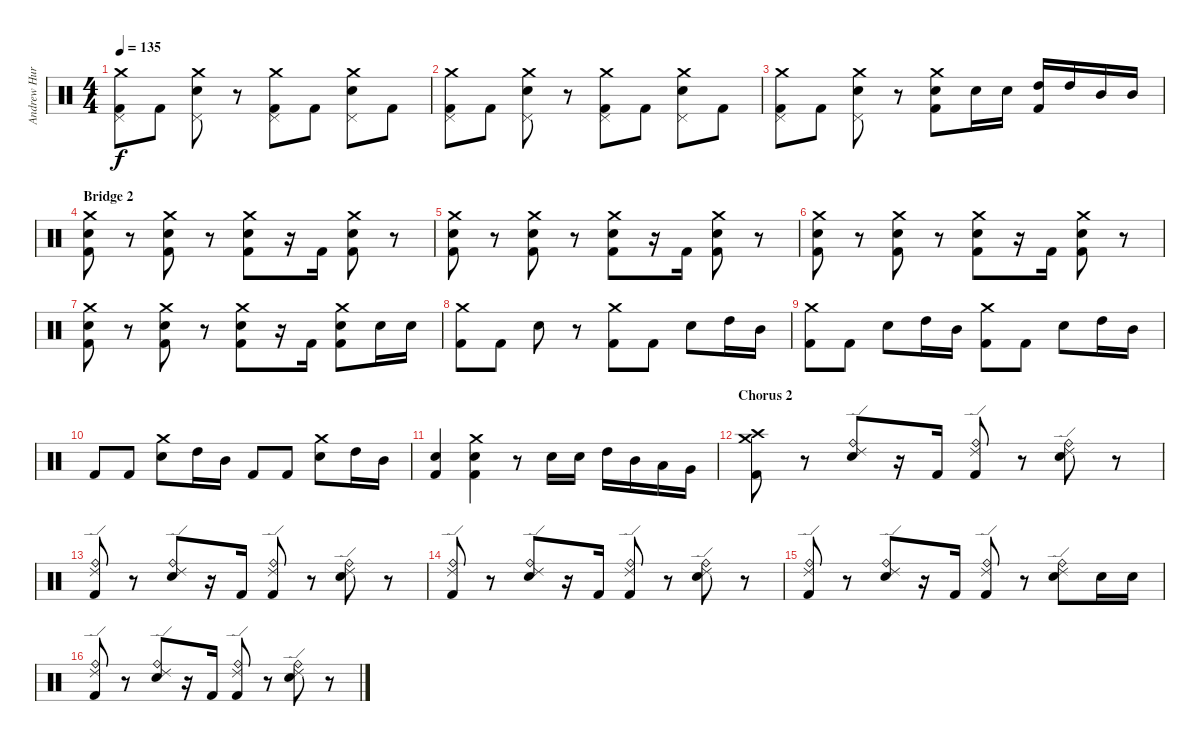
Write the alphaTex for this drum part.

\track ("Andrew Hurley (Drums)" "Andrew Hur") {instrument percussion}
\staff {score}
\articulation defaults
\ts (4 4)
\tempo 135
\clef neutral
\ks c
("Crash medium (hit)" "Pedal Hi-Hat (hit)" "Kick (hit) 2").8{dy f} "Kick (hit) 2".8 ("Crash medium (hit)" "Pedal Hi-Hat (hit)" "Electric Snare (hit)").8 r.8 ("Crash medium (hit)" "Pedal Hi-Hat (hit)" "Kick (hit) 2").8 "Kick (hit) 2".8 ("Crash medium (hit)" "Pedal Hi-Hat (hit)" "Electric Snare (hit)").8 "Kick (hit) 2".8 |
("Crash medium (hit)" "Pedal Hi-Hat (hit)" "Kick (hit) 2").8 "Kick (hit) 2".8 ("Crash medium (hit)" "Pedal Hi-Hat (hit)" "Electric Snare (hit)").8 r.8 ("Crash medium (hit)" "Pedal Hi-Hat (hit)" "Kick (hit) 2").8 "Kick (hit) 2".8 ("Crash medium (hit)" "Pedal Hi-Hat (hit)" "Electric Snare (hit)").8 "Kick (hit) 2".8 |
("Crash medium (hit)" "Pedal Hi-Hat (hit)" "Kick (hit) 2").8 "Kick (hit) 2".8 ("Crash medium (hit)" "Pedal Hi-Hat (hit)" "Electric Snare (hit)").8 r.8 ("Crash medium (hit)" "Electric Snare (hit)" "Kick (hit) 2").8 "Electric Snare (hit)".16 "Electric Snare (hit)".16 ("High Tom (hit)" "Kick (hit) 2").16 "High Tom (hit)".16 "Mid Tom (hit)".16 "Mid Tom (hit)".16 |
\section ("" "Bridge 2")
("Crash medium (hit)" "Electric Snare (hit)" "Kick (hit) 2").8 r.8 ("Crash medium (hit)" "Electric Snare (hit)" "Kick (hit) 2").8 r.8 ("Crash medium (hit)" "Electric Snare (hit)" "Kick (hit) 2").8 r.16 "Kick (hit) 2".16 ("Crash medium (hit)" "Electric Snare (hit)" "Kick (hit) 2").8 r.8 |
("Crash medium (hit)" "Electric Snare (hit)" "Kick (hit) 2").8 r.8 ("Crash medium (hit)" "Electric Snare (hit)" "Kick (hit) 2").8 r.8 ("Crash medium (hit)" "Electric Snare (hit)" "Kick (hit) 2").8 r.16 "Kick (hit) 2".16 ("Crash medium (hit)" "Electric Snare (hit)" "Kick (hit) 2").8 r.8 |
("Crash medium (hit)" "Electric Snare (hit)" "Kick (hit) 2").8 r.8 ("Crash medium (hit)" "Electric Snare (hit)" "Kick (hit) 2").8 r.8 ("Crash medium (hit)" "Electric Snare (hit)" "Kick (hit) 2").8 r.16 "Kick (hit) 2".16 ("Crash medium (hit)" "Electric Snare (hit)" "Kick (hit) 2").8 r.8 |
("Crash medium (hit)" "Electric Snare (hit)" "Kick (hit) 2").8 r.8 ("Crash medium (hit)" "Electric Snare (hit)" "Kick (hit) 2").8 r.8 ("Crash medium (hit)" "Electric Snare (hit)" "Kick (hit) 2").8 r.16 "Kick (hit) 2".16 ("Crash medium (hit)" "Electric Snare (hit)" "Kick (hit) 2").8 "Electric Snare (hit)".16 "Electric Snare (hit)".16 |
("Crash medium (hit)" "Kick (hit) 2").8 "Kick (hit) 2".8 "Electric Snare (hit)".8 r.8 ("Crash medium (hit)" "Kick (hit) 2").8 "Kick (hit) 2".8 "Electric Snare (hit)".8 "High Tom (hit)".16 "Mid Tom (hit)".16 |
("Crash medium (hit)" "Kick (hit) 2").8 "Kick (hit) 2".8 "Electric Snare (hit)".8 "High Tom (hit)".16 "Mid Tom (hit)".16 ("Crash medium (hit)" "Kick (hit) 2").8 "Kick (hit) 2".8 "Electric Snare (hit)".8 "High Tom (hit)".16 "Mid Tom (hit)".16 |
"Kick (hit) 2".8 "Kick (hit) 2".8 ("Crash medium (hit)" "Electric Snare (hit)").8 "High Tom (hit)".16 "Mid Tom (hit)".16 "Kick (hit) 2".8 "Kick (hit) 2".8 ("Crash medium (hit)" "Electric Snare (hit)").8 "High Tom (hit)".16 "Mid Tom (hit)".16 |
("Electric Snare (hit)" "Kick (hit) 2").4 ("Crash medium (hit)" "Electric Snare (hit)" "Kick (hit) 2").4 r.8 "Electric Snare (hit)".16 "Electric Snare (hit)".16 "High Tom (hit)".16 "Mid Tom (hit)".16 "Low Tom (hit)".16 "Very Low Tom (hit)".16 |
\section ("" "Chorus 2")
("Crash medium (hit)" "Crash high (hit)" "Kick (hit) 2").8 r.8 ("Ride (bell)" "Ride (edge) 2" "Electric Snare (hit)").8 r.16 "Kick (hit) 2".16 ("Ride (bell)" "Ride (edge) 2" "Kick (hit) 2").8 r.8 ("Ride (bell)" "Ride (edge) 2" "Electric Snare (hit)").8 r.8 |
("Ride (bell)" "Ride (edge) 2" "Kick (hit) 2").8 r.8 ("Ride (bell)" "Ride (edge) 2" "Electric Snare (hit)").8 r.16 "Kick (hit) 2".16 ("Ride (bell)" "Ride (edge) 2" "Kick (hit) 2").8 r.8 ("Ride (bell)" "Ride (edge) 2" "Electric Snare (hit)").8 r.8 |
("Ride (bell)" "Ride (edge) 2" "Kick (hit) 2").8 r.8 ("Ride (bell)" "Ride (edge) 2" "Electric Snare (hit)").8 r.16 "Kick (hit) 2".16 ("Ride (bell)" "Ride (edge) 2" "Kick (hit) 2").8 r.8 ("Ride (bell)" "Ride (edge) 2" "Electric Snare (hit)").8 r.8 |
("Ride (bell)" "Ride (edge) 2" "Kick (hit) 2").8 r.8 ("Ride (bell)" "Ride (edge) 2" "Electric Snare (hit)").8 r.16 "Kick (hit) 2".16 ("Ride (bell)" "Ride (edge) 2" "Kick (hit) 2").8 r.8 ("Ride (bell)" "Ride (edge) 2" "Electric Snare (hit)").8 "Electric Snare (hit)".16 "Electric Snare (hit)".16 |
("Ride (bell)" "Ride (edge) 2" "Kick (hit) 2").8 r.8 ("Ride (bell)" "Ride (edge) 2" "Electric Snare (hit)").8 r.16 "Kick (hit) 2".16 ("Ride (bell)" "Ride (edge) 2" "Kick (hit) 2").8 r.8 ("Ride (bell)" "Ride (edge) 2" "Electric Snare (hit)").8 r.8
